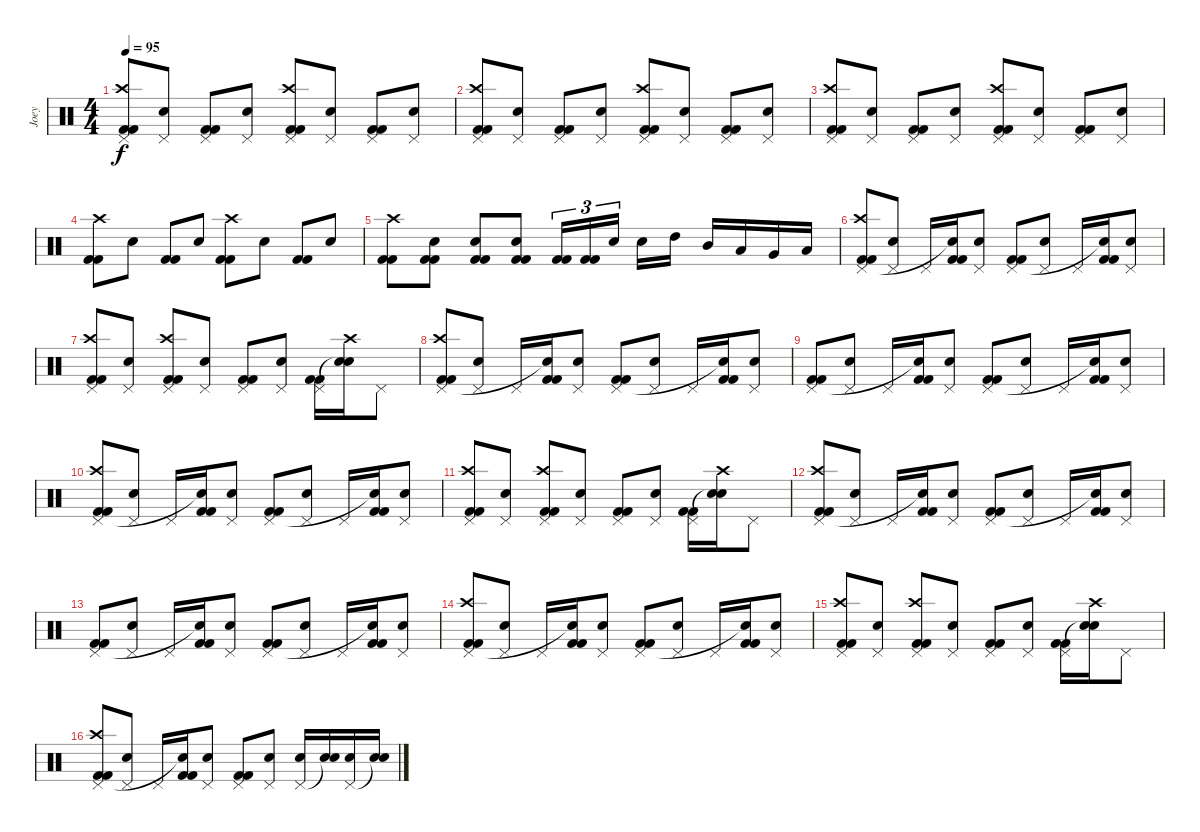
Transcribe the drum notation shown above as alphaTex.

\track ("Joey" "Joey") {instrument percussion}
\staff {score}
\articulation defaults
\ts (4 4)
\tempo 95
\clef neutral
\ks c
("Kick (hit) 2" "Kick (hit) 2" "Crash high (hit)" "Pedal Hi-Hat (hit)").8{dy f} ("Electric Snare (hit)" "Pedal Hi-Hat (hit)").8 ("Kick (hit) 2" "Kick (hit) 2" "Pedal Hi-Hat (hit)").8 ("Electric Snare (hit)" "Pedal Hi-Hat (hit)").8 ("Kick (hit) 2" "Kick (hit) 2" "Crash high (hit)" "Pedal Hi-Hat (hit)").8 ("Electric Snare (hit)" "Pedal Hi-Hat (hit)").8 ("Kick (hit) 2" "Kick (hit) 2" "Pedal Hi-Hat (hit)").8 ("Electric Snare (hit)" "Pedal Hi-Hat (hit)").8 |
("Kick (hit) 2" "Kick (hit) 2" "Crash high (hit)" "Pedal Hi-Hat (hit)").8 ("Electric Snare (hit)" "Pedal Hi-Hat (hit)").8 ("Kick (hit) 2" "Kick (hit) 2" "Pedal Hi-Hat (hit)").8 ("Electric Snare (hit)" "Pedal Hi-Hat (hit)").8 ("Kick (hit) 2" "Kick (hit) 2" "Crash high (hit)" "Pedal Hi-Hat (hit)").8 ("Electric Snare (hit)" "Pedal Hi-Hat (hit)").8 ("Kick (hit) 2" "Kick (hit) 2" "Pedal Hi-Hat (hit)").8 ("Electric Snare (hit)" "Pedal Hi-Hat (hit)").8 |
("Kick (hit) 2" "Kick (hit) 2" "Crash high (hit)" "Pedal Hi-Hat (hit)").8 ("Electric Snare (hit)" "Pedal Hi-Hat (hit)").8 ("Kick (hit) 2" "Kick (hit) 2" "Pedal Hi-Hat (hit)").8 ("Electric Snare (hit)" "Pedal Hi-Hat (hit)").8 ("Kick (hit) 2" "Kick (hit) 2" "Crash high (hit)" "Pedal Hi-Hat (hit)").8 ("Electric Snare (hit)" "Pedal Hi-Hat (hit)").8 ("Kick (hit) 2" "Kick (hit) 2" "Pedal Hi-Hat (hit)").8 ("Electric Snare (hit)" "Pedal Hi-Hat (hit)").8 |
("Kick (hit) 2" "Kick (hit) 2" "Crash high (hit)").8 "Electric Snare (hit)".8 ("Kick (hit) 2" "Kick (hit) 2").8 "Electric Snare (hit)".8 ("Kick (hit) 2" "Kick (hit) 2" "Crash high (hit)").8 "Electric Snare (hit)".8 ("Kick (hit) 2" "Kick (hit) 2").8 "Electric Snare (hit)".8 |
("Kick (hit) 2" "Kick (hit) 2" "Crash high (hit)").8 ("Kick (hit) 2" "Kick (hit) 2" "Electric Snare (hit)").8 ("Kick (hit) 2" "Kick (hit) 2" "Electric Snare (hit)").8 ("Kick (hit) 2" "Kick (hit) 2" "Electric Snare (hit)").8 ("Kick (hit) 2" "Kick (hit) 2").16{tu (3 2)} ("Kick (hit) 2" "Kick (hit) 2").16{tu (3 2)} "Electric Snare (hit)".16{tu (3 2)} "Electric Snare (hit)".16 "High Tom (hit)".16 "Mid Tom (hit)".16 "Low Tom (hit)".16 "Very Low Tom (hit)".16 "Low Tom (hit)".16 |
("Kick (hit) 2" "Kick (hit) 2" "Pedal Hi-Hat (hit)" "Crash high (hit)").8 ("Electric Snare (hit)" "Pedal Hi-Hat (hit)").8 "Pedal Hi-Hat (hit)".16 ("Kick (hit) 2" "Kick (hit) 2" "Snare (hit)"{t}).16 ("Electric Snare (hit)" "Pedal Hi-Hat (hit)").8 ("Kick (hit) 2" "Kick (hit) 2" "Pedal Hi-Hat (hit)").8 ("Electric Snare (hit)" "Pedal Hi-Hat (hit)").8 "Pedal Hi-Hat (hit)".16 ("Kick (hit) 2" "Kick (hit) 2" "Snare (hit)"{t}).16 ("Electric Snare (hit)" "Pedal Hi-Hat (hit)").8 |
("Kick (hit) 2" "Kick (hit) 2" "Crash high (hit)" "Pedal Hi-Hat (hit)").8 ("Electric Snare (hit)" "Pedal Hi-Hat (hit)").8 ("Kick (hit) 2" "Kick (hit) 2" "Crash high (hit)" "Pedal Hi-Hat (hit)").8 ("Electric Snare (hit)" "Pedal Hi-Hat (hit)").8 ("Kick (hit) 2" "Kick (hit) 2" "Pedal Hi-Hat (hit)").8 ("Electric Snare (hit)" "Pedal Hi-Hat (hit)").8 ("Kick (hit) 2" "Kick (hit) 2" "Pedal Hi-Hat (hit)").16 ("Electric Snare (hit)" "Crash high (hit)" "Snare (hit)"{t}).16 "Pedal Hi-Hat (hit)".8 |
("Kick (hit) 2" "Kick (hit) 2" "Pedal Hi-Hat (hit)" "Crash high (hit)").8 ("Electric Snare (hit)" "Pedal Hi-Hat (hit)").8 "Pedal Hi-Hat (hit)".16 ("Kick (hit) 2" "Kick (hit) 2" "Snare (hit)"{t}).16 ("Electric Snare (hit)" "Pedal Hi-Hat (hit)").8 ("Kick (hit) 2" "Kick (hit) 2" "Pedal Hi-Hat (hit)").8 ("Electric Snare (hit)" "Pedal Hi-Hat (hit)").8 "Pedal Hi-Hat (hit)".16 ("Kick (hit) 2" "Kick (hit) 2" "Snare (hit)"{t}).16 ("Electric Snare (hit)" "Pedal Hi-Hat (hit)").8 |
("Kick (hit) 2" "Kick (hit) 2" "Pedal Hi-Hat (hit)").8 ("Electric Snare (hit)" "Pedal Hi-Hat (hit)").8 "Pedal Hi-Hat (hit)".16 ("Kick (hit) 2" "Kick (hit) 2" "Snare (hit)"{t}).16 ("Electric Snare (hit)" "Pedal Hi-Hat (hit)").8 ("Kick (hit) 2" "Kick (hit) 2" "Pedal Hi-Hat (hit)").8 ("Electric Snare (hit)" "Pedal Hi-Hat (hit)").8 "Pedal Hi-Hat (hit)".16 ("Kick (hit) 2" "Kick (hit) 2" "Snare (hit)"{t}).16 ("Electric Snare (hit)" "Pedal Hi-Hat (hit)").8 |
("Kick (hit) 2" "Kick (hit) 2" "Pedal Hi-Hat (hit)" "Crash high (hit)").8 ("Electric Snare (hit)" "Pedal Hi-Hat (hit)").8 "Pedal Hi-Hat (hit)".16 ("Kick (hit) 2" "Kick (hit) 2" "Snare (hit)"{t}).16 ("Electric Snare (hit)" "Pedal Hi-Hat (hit)").8 ("Kick (hit) 2" "Kick (hit) 2" "Pedal Hi-Hat (hit)").8 ("Electric Snare (hit)" "Pedal Hi-Hat (hit)").8 "Pedal Hi-Hat (hit)".16 ("Kick (hit) 2" "Kick (hit) 2" "Snare (hit)"{t}).16 ("Electric Snare (hit)" "Pedal Hi-Hat (hit)").8 |
("Kick (hit) 2" "Kick (hit) 2" "Crash high (hit)" "Pedal Hi-Hat (hit)").8 ("Electric Snare (hit)" "Pedal Hi-Hat (hit)").8 ("Kick (hit) 2" "Kick (hit) 2" "Crash high (hit)" "Pedal Hi-Hat (hit)").8 ("Electric Snare (hit)" "Pedal Hi-Hat (hit)").8 ("Kick (hit) 2" "Kick (hit) 2" "Pedal Hi-Hat (hit)").8 ("Electric Snare (hit)" "Pedal Hi-Hat (hit)").8 ("Kick (hit) 2" "Kick (hit) 2" "Pedal Hi-Hat (hit)").16 ("Electric Snare (hit)" "Crash high (hit)" "Snare (hit)"{t}).16 "Pedal Hi-Hat (hit)".8 |
("Kick (hit) 2" "Kick (hit) 2" "Pedal Hi-Hat (hit)" "Crash high (hit)").8 ("Electric Snare (hit)" "Pedal Hi-Hat (hit)").8 "Pedal Hi-Hat (hit)".16 ("Kick (hit) 2" "Kick (hit) 2" "Snare (hit)"{t}).16 ("Electric Snare (hit)" "Pedal Hi-Hat (hit)").8 ("Kick (hit) 2" "Kick (hit) 2" "Pedal Hi-Hat (hit)").8 ("Electric Snare (hit)" "Pedal Hi-Hat (hit)").8 "Pedal Hi-Hat (hit)".16 ("Kick (hit) 2" "Kick (hit) 2" "Snare (hit)"{t}).16 ("Electric Snare (hit)" "Pedal Hi-Hat (hit)").8 |
("Kick (hit) 2" "Kick (hit) 2" "Pedal Hi-Hat (hit)").8 ("Electric Snare (hit)" "Pedal Hi-Hat (hit)").8 "Pedal Hi-Hat (hit)".16 ("Kick (hit) 2" "Kick (hit) 2" "Snare (hit)"{t}).16 ("Electric Snare (hit)" "Pedal Hi-Hat (hit)").8 ("Kick (hit) 2" "Kick (hit) 2" "Pedal Hi-Hat (hit)").8 ("Electric Snare (hit)" "Pedal Hi-Hat (hit)").8 "Pedal Hi-Hat (hit)".16 ("Kick (hit) 2" "Kick (hit) 2" "Snare (hit)"{t}).16 ("Electric Snare (hit)" "Pedal Hi-Hat (hit)").8 |
("Kick (hit) 2" "Kick (hit) 2" "Pedal Hi-Hat (hit)" "Crash high (hit)").8 ("Electric Snare (hit)" "Pedal Hi-Hat (hit)").8 "Pedal Hi-Hat (hit)".16 ("Kick (hit) 2" "Kick (hit) 2" "Snare (hit)"{t}).16 ("Electric Snare (hit)" "Pedal Hi-Hat (hit)").8 ("Kick (hit) 2" "Kick (hit) 2" "Pedal Hi-Hat (hit)").8 ("Electric Snare (hit)" "Pedal Hi-Hat (hit)").8 "Pedal Hi-Hat (hit)".16 ("Kick (hit) 2" "Kick (hit) 2" "Snare (hit)"{t}).16 ("Electric Snare (hit)" "Pedal Hi-Hat (hit)").8 |
("Kick (hit) 2" "Kick (hit) 2" "Crash high (hit)" "Pedal Hi-Hat (hit)").8 ("Electric Snare (hit)" "Pedal Hi-Hat (hit)").8 ("Kick (hit) 2" "Kick (hit) 2" "Crash high (hit)" "Pedal Hi-Hat (hit)").8 ("Electric Snare (hit)" "Pedal Hi-Hat (hit)").8 ("Kick (hit) 2" "Kick (hit) 2" "Pedal Hi-Hat (hit)").8 ("Electric Snare (hit)" "Pedal Hi-Hat (hit)").8 ("Kick (hit) 2" "Kick (hit) 2" "Pedal Hi-Hat (hit)").16 ("Electric Snare (hit)" "Crash high (hit)" "Snare (hit)"{t}).16 "Pedal Hi-Hat (hit)".8 |
("Kick (hit) 2" "Kick (hit) 2" "Pedal Hi-Hat (hit)" "Crash high (hit)").8 ("Electric Snare (hit)" "Pedal Hi-Hat (hit)").8 "Pedal Hi-Hat (hit)".16 ("Kick (hit) 2" "Kick (hit) 2" "Snare (hit)"{t}).16 ("Electric Snare (hit)" "Pedal Hi-Hat (hit)").8 ("Kick (hit) 2" "Kick (hit) 2" "Pedal Hi-Hat (hit)").8 ("Electric Snare (hit)" "Pedal Hi-Hat (hit)").8 ("Electric Snare (hit)" "Pedal Hi-Hat (hit)").16 ("Electric Snare (hit)" "Snare (hit)"{t}).16 ("Electric Snare (hit)" "Pedal Hi-Hat (hit)").16 ("Electric Snare (hit)" "Snare (hit)"{t}).16
